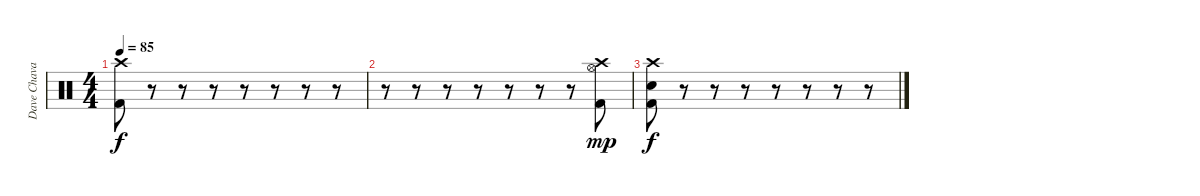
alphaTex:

\track ("Dave Chavarri" "Dave Chava") {instrument percussion}
\staff {score}
\articulation defaults
\ts (4 4)
\tempo 85
\clef neutral
\ks c
("Crash high (hit)" "Kick (hit) 2").8{dy f} r.8 r.8 r.8 r.8 r.8 r.8 r.8 |
r.8 r.8 r.8 r.8 r.8 r.8 r.8 ("Crash high (hit)" "Hi-Hat (open)" "Kick (hit) 2").8{dy mp} |
("Crash high (hit)"{pm} "Snare (hit) 2" "Kick (hit) 2").8{dy f} r.8 r.8 r.8 r.8 r.8 r.8 r.8
